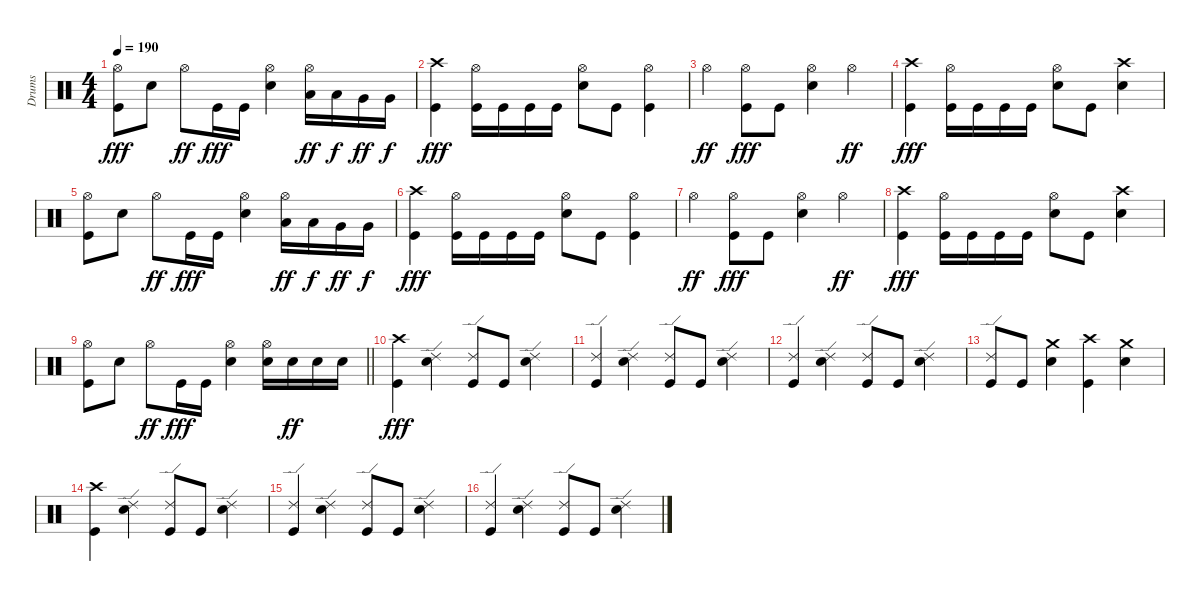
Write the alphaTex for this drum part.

\track ("Drums" "Drums") {instrument percussion}
\staff {score}
\articulation defaults
\ts (4 4)
\tempo 190
\clef neutral
\ks c
("Hi-Hat (open)" "Kick (hit)").8{dy fff} "Snare (hit) 2".8 "Hi-Hat (open)".8{dy ff} "Kick (hit)".16{dy fff} "Kick (hit)".16 ("Hi-Hat (open)" "Snare (hit) 2").4 ("Hi-Hat (open)" "Low Tom (hit)").16{dy ff} "Low Tom (hit)".16{dy f} "Very Low Tom (hit)".16{dy ff} "Very Low Tom (hit)".16{dy f} |
("Crash high (hit)" "Kick (hit)").4{dy fff} ("Hi-Hat (open)" "Kick (hit)").16 "Kick (hit)".16 "Kick (hit)".16 "Kick (hit)".16 ("Hi-Hat (open)" "Snare (hit) 2").8 "Kick (hit)".8 ("Hi-Hat (open)" "Kick (hit)").4 |
"Hi-Hat (open)".4{dy ff} ("Hi-Hat (open)" "Kick (hit)").8{dy fff} "Kick (hit)".8 ("Hi-Hat (open)" "Snare (hit) 2").4 "Hi-Hat (open)".4{dy ff} |
("Crash high (hit)" "Kick (hit)").4{dy fff} ("Hi-Hat (open)" "Kick (hit)").16 "Kick (hit)".16 "Kick (hit)".16 "Kick (hit)".16 ("Hi-Hat (open)" "Snare (hit) 2").8 "Kick (hit)".8 ("Crash high (hit)" "Snare (hit) 2").4 |
("Hi-Hat (open)" "Kick (hit)").8 "Snare (hit) 2".8 "Hi-Hat (open)".8{dy ff} "Kick (hit)".16{dy fff} "Kick (hit)".16 ("Hi-Hat (open)" "Snare (hit) 2").4 ("Hi-Hat (open)" "Low Tom (hit)").16{dy ff} "Low Tom (hit)".16{dy f} "Very Low Tom (hit)".16{dy ff} "Very Low Tom (hit)".16{dy f} |
("Crash high (hit)" "Kick (hit)").4{dy fff} ("Hi-Hat (open)" "Kick (hit)").16 "Kick (hit)".16 "Kick (hit)".16 "Kick (hit)".16 ("Hi-Hat (open)" "Snare (hit) 2").8 "Kick (hit)".8 ("Hi-Hat (open)" "Kick (hit)").4 |
"Hi-Hat (open)".4{dy ff} ("Hi-Hat (open)" "Kick (hit)").8{dy fff} "Kick (hit)".8 ("Hi-Hat (open)" "Snare (hit) 2").4 "Hi-Hat (open)".4{dy ff} |
("Crash high (hit)" "Kick (hit)").4{dy fff} ("Hi-Hat (open)" "Kick (hit)").16 "Kick (hit)".16 "Kick (hit)".16 "Kick (hit)".16 ("Hi-Hat (open)" "Snare (hit) 2").8 "Kick (hit)".8 ("Crash high (hit)" "Snare (hit) 2").4 |
\barLineRight lightlight
("Hi-Hat (open)" "Kick (hit)").8 "Snare (hit) 2".8 "Hi-Hat (open)".8{dy ff} "Kick (hit)".16{dy fff} "Kick (hit)".16 ("Hi-Hat (open)" "Snare (hit) 2").4 ("Hi-Hat (open)" "Snare (hit) 2").16 "Snare (hit) 2".16{dy ff} "Snare (hit) 2".16 "Snare (hit) 2".16 |
("Crash high (hit)" "Kick (hit)").4{dy fff} ("Ride (edge) 2" "Snare (hit) 2").4 ("Ride (edge) 2" "Kick (hit)").8 "Kick (hit)".8 ("Ride (edge) 2" "Snare (hit) 2").4 |
("Ride (edge) 2" "Kick (hit)").4 ("Ride (edge) 2" "Snare (hit) 2").4 ("Ride (edge) 2" "Kick (hit)").8 "Kick (hit)".8 ("Ride (edge) 2" "Snare (hit) 2").4 |
("Ride (edge) 2" "Kick (hit)").4 ("Ride (edge) 2" "Snare (hit) 2").4 ("Ride (edge) 2" "Kick (hit)").8 "Kick (hit)".8 ("Ride (edge) 2" "Snare (hit) 2").4 |
("Ride (edge) 2" "Kick (hit)").8 "Kick (hit)".8 ("Crash medium (hit)" "Snare (hit) 2").4 ("Crash high (hit)" "Kick (hit)").4 ("Crash medium (hit)" "Snare (hit) 2").4 |
("Crash high (hit)" "Kick (hit)").4 ("Ride (edge) 2" "Snare (hit) 2").4 ("Ride (edge) 2" "Kick (hit)").8 "Kick (hit)".8 ("Ride (edge) 2" "Snare (hit) 2").4 |
("Ride (edge) 2" "Kick (hit)").4 ("Ride (edge) 2" "Snare (hit) 2").4 ("Ride (edge) 2" "Kick (hit)").8 "Kick (hit)".8 ("Ride (edge) 2" "Snare (hit) 2").4 |
("Ride (edge) 2" "Kick (hit)").4 ("Ride (edge) 2" "Snare (hit) 2").4 ("Ride (edge) 2" "Kick (hit)").8 "Kick (hit)".8 ("Ride (edge) 2" "Snare (hit) 2").4
